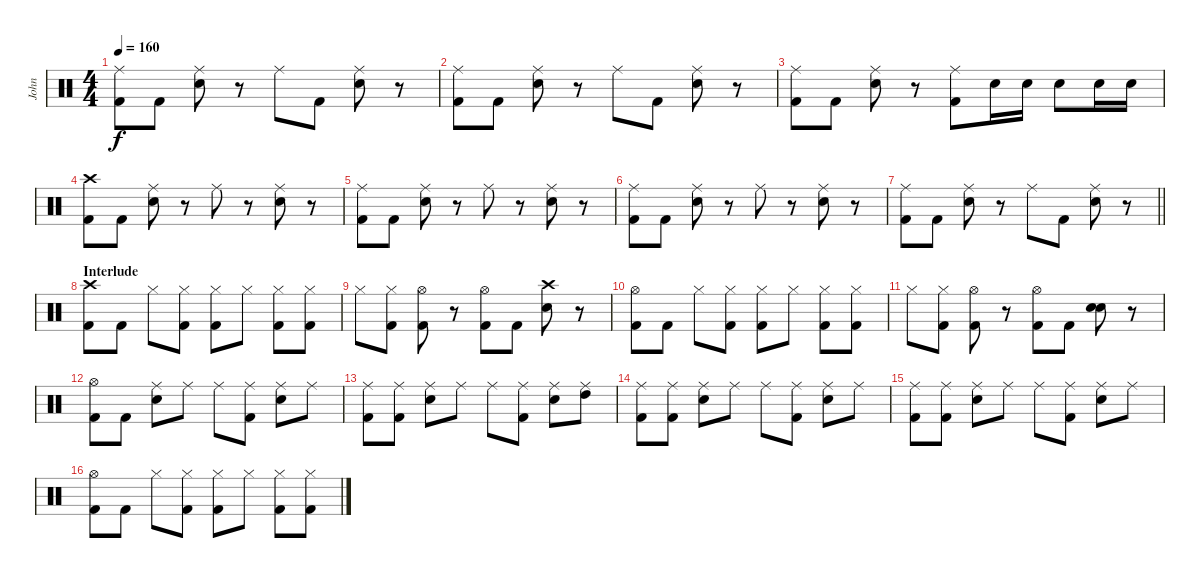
\track ("John" "John") {instrument percussion}
\staff {score}
\articulation defaults
\ts (4 4)
\tempo 160
\clef neutral
\ks c
("Ride (middle)" "Kick (hit) 2").8{dy f} "Kick (hit) 2".8 ("Ride (middle)" "Snare (hit) 2").8 r.8 "Ride (middle)".8 "Kick (hit) 2".8 ("Ride (middle)" "Snare (hit) 2").8 r.8 |
("Ride (middle)" "Kick (hit) 2").8 "Kick (hit) 2".8 ("Ride (middle)" "Snare (hit) 2").8 r.8 "Ride (middle)".8 "Kick (hit) 2".8 ("Ride (middle)" "Snare (hit) 2").8 r.8 |
("Ride (middle)" "Kick (hit) 2").8 "Kick (hit) 2".8 ("Ride (middle)" "Snare (hit) 2").8 r.8 ("Ride (middle)" "Kick (hit) 2").8 "Snare (hit) 2".16 "Snare (hit) 2".16 "Snare (hit) 2".8 "Snare (hit) 2".16 "Snare (hit) 2".16 |
("Crash high (hit)" "Kick (hit) 2").8 "Kick (hit) 2".8 ("Ride (middle)" "Snare (hit) 2").8 r.8 "Ride (middle)".8 r.8 ("Ride (middle)" "Snare (hit) 2").8 r.8 |
("Ride (middle)" "Kick (hit) 2").8 "Kick (hit) 2".8 ("Ride (middle)" "Snare (hit) 2").8 r.8 "Ride (middle)".8 r.8 ("Ride (middle)" "Snare (hit) 2").8 r.8 |
("Ride (middle)" "Kick (hit) 2").8 "Kick (hit) 2".8 ("Ride (middle)" "Snare (hit) 2").8 r.8 "Ride (middle)".8 r.8 ("Ride (middle)" "Snare (hit) 2").8 r.8 |
\barLineRight lightlight
("Ride (middle)" "Kick (hit) 2").8 "Kick (hit) 2".8 ("Ride (middle)" "Snare (hit) 2").8 r.8 "Ride (middle)".8 "Kick (hit) 2".8 ("Ride (middle)" "Snare (hit) 2").8 r.8 |
\section ("" "Interlude")
("Crash high (hit)" "Kick (hit) 2").8 "Kick (hit) 2".8 "Hi-Hat (closed)".8 ("Hi-Hat (closed)" "Kick (hit) 2").8 ("Hi-Hat (closed)" "Kick (hit) 2").8 "Hi-Hat (closed)".8 ("Hi-Hat (closed)" "Kick (hit) 2").8 ("Hi-Hat (closed)" "Kick (hit) 2").8 |
"Hi-Hat (closed)".8 ("Hi-Hat (closed)" "Kick (hit) 2").8 ("Hi-Hat (open)" "Kick (hit) 2").8 r.8 ("Hi-Hat (open)" "Kick (hit) 2").8 "Kick (hit) 2".8 ("Crash high (hit)" "Snare (hit) 2").8 r.8 |
("Hi-Hat (open)" "Kick (hit) 2").8 "Kick (hit) 2".8 "Hi-Hat (closed)".8 ("Hi-Hat (closed)" "Kick (hit) 2").8 ("Hi-Hat (closed)" "Kick (hit) 2").8 "Hi-Hat (closed)".8 ("Hi-Hat (closed)" "Kick (hit) 2").8 ("Hi-Hat (closed)" "Kick (hit) 2").8 |
"Hi-Hat (closed)".8 ("Hi-Hat (closed)" "Kick (hit) 2").8 ("Hi-Hat (open)" "Kick (hit) 2").8 r.8 ("Hi-Hat (open)" "Kick (hit) 2").8 "Kick (hit) 2".8 ("Snare (hit) 2" "Snare (hit) 2").8 r.8 |
("Hi-Hat (open)" "Kick (hit) 2").8 "Kick (hit) 2".8 ("Ride (middle)" "Snare (hit) 2").8 "Ride (middle)".8 "Ride (middle)".8 ("Ride (middle)" "Kick (hit) 2").8 ("Ride (middle)" "Snare (hit) 2").8 "Ride (middle)".8 |
("Ride (middle)" "Kick (hit) 2").8 ("Ride (middle)" "Kick (hit) 2").8 ("Ride (middle)" "Snare (hit) 2").8 "Ride (middle)".8 "Ride (middle)".8 ("Ride (middle)" "Kick (hit) 2").8 ("Ride (middle)" "Snare (hit) 2").8 ("Ride (middle)" "High Tom (hit)").8 |
("Ride (middle)" "Kick (hit) 2").8 ("Ride (middle)" "Kick (hit) 2").8 ("Ride (middle)" "Snare (hit) 2").8 "Ride (middle)".8 "Ride (middle)".8 ("Ride (middle)" "Kick (hit) 2").8 ("Ride (middle)" "Snare (hit) 2").8 "Ride (middle)".8 |
("Ride (middle)" "Kick (hit) 2").8 ("Ride (middle)" "Kick (hit) 2").8 ("Ride (middle)" "Snare (hit) 2").8 "Ride (middle)".8 "Ride (middle)".8 ("Ride (middle)" "Kick (hit) 2").8 ("Ride (middle)" "Snare (hit) 2").8 "Ride (middle)".8 |
("Hi-Hat (open)" "Kick (hit) 2").8 "Kick (hit) 2".8 "Hi-Hat (closed)".8 ("Hi-Hat (closed)" "Kick (hit) 2").8 ("Hi-Hat (closed)" "Kick (hit) 2").8 "Hi-Hat (closed)".8 ("Hi-Hat (closed)" "Kick (hit) 2").8 ("Hi-Hat (closed)" "Kick (hit) 2").8
